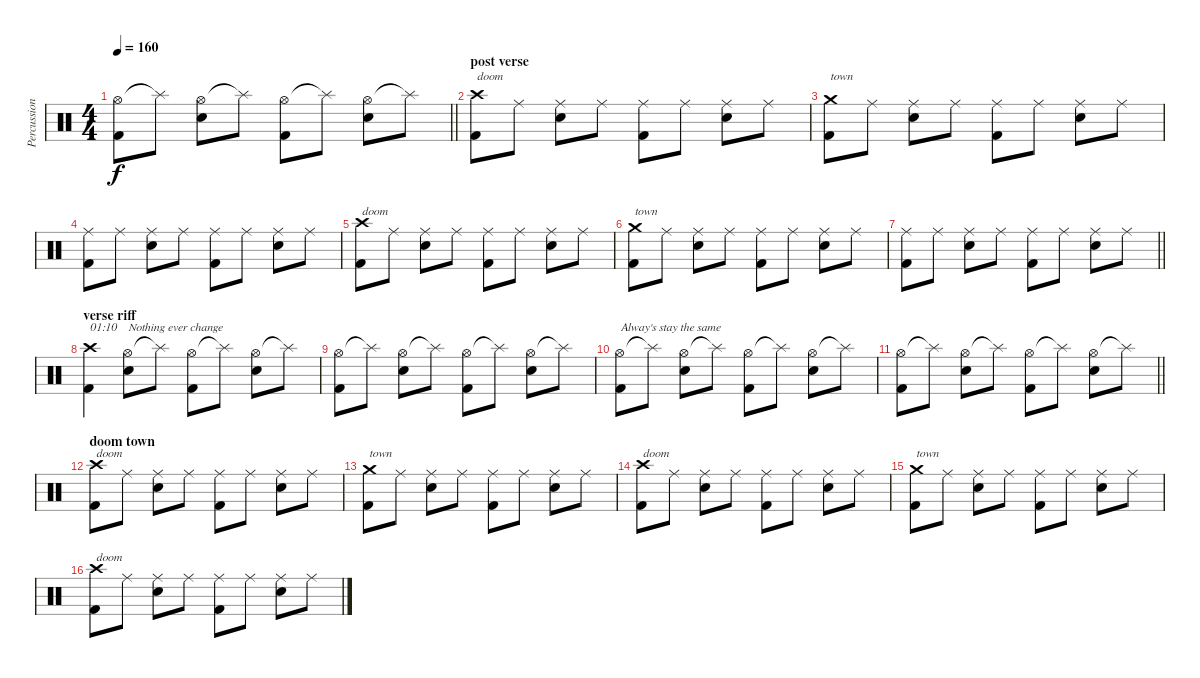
\track ("Percussion" "Percussion") {mute instrument percussion}
\staff {score}
\articulation defaults
\ts (4 4)
\tempo 160
\clef neutral
\barLineRight lightlight
\ks c
("Hi-Hat (open)" "Kick (hit) 2").8{dy f} "Splash (hit)"{t}.8 ("Hi-Hat (open)" "Snare (hit) 2").8 "Splash (hit)"{t}.8 ("Hi-Hat (open)" "Kick (hit) 2").8 "Splash (hit)"{t}.8 ("Hi-Hat (open)" "Snare (hit) 2").8 "Splash (hit)"{t}.8 |
\section ("" "post verse")
("Crash high (hit)" "Kick (hit) 2").8{txt "doom"} "Ride (middle)".8 ("Ride (middle)" "Snare (hit) 2").8 "Ride (middle)".8 ("Ride (middle)" "Kick (hit) 2").8 "Ride (middle)".8 ("Ride (middle)" "Snare (hit) 2").8 "Ride (middle)".8 |
("Crash medium (hit)" "Kick (hit) 2").8{txt "town"} "Ride (middle)".8 ("Ride (middle)" "Snare (hit) 2").8 "Ride (middle)".8 ("Ride (middle)" "Kick (hit) 2").8 "Ride (middle)".8 ("Ride (middle)" "Snare (hit) 2").8 "Ride (middle)".8 |
("Ride (middle)" "Kick (hit) 2").8 "Ride (middle)".8 ("Ride (middle)" "Snare (hit) 2").8 "Ride (middle)".8 ("Ride (middle)" "Kick (hit) 2").8 "Ride (middle)".8 ("Ride (middle)" "Snare (hit) 2").8 "Ride (middle)".8 |
("Crash high (hit)" "Kick (hit) 2").8{txt "doom"} "Ride (middle)".8 ("Ride (middle)" "Snare (hit) 2").8 "Ride (middle)".8 ("Ride (middle)" "Kick (hit) 2").8 "Ride (middle)".8 ("Ride (middle)" "Snare (hit) 2").8 "Ride (middle)".8 |
("Crash medium (hit)" "Kick (hit) 2").8{txt "town"} "Ride (middle)".8 ("Ride (middle)" "Snare (hit) 2").8 "Ride (middle)".8 ("Ride (middle)" "Kick (hit) 2").8 "Ride (middle)".8 ("Ride (middle)" "Snare (hit) 2").8 "Ride (middle)".8 |
\barLineRight lightlight
("Ride (middle)" "Kick (hit) 2").8 "Ride (middle)".8 ("Ride (middle)" "Snare (hit) 2").8 "Ride (middle)".8 ("Ride (middle)" "Kick (hit) 2").8 "Ride (middle)".8 ("Ride (middle)" "Snare (hit) 2").8 "Ride (middle)".8 |
\section ("" "verse riff")
("Crash high (hit)" "Kick (hit) 2").4{txt "01:10"} ("Hi-Hat (open)" "Snare (hit) 2").8{txt "Nothing ever change"} "Splash (hit)"{t}.8 ("Hi-Hat (open)" "Kick (hit) 2").8 "Splash (hit)"{t}.8 ("Hi-Hat (open)" "Snare (hit) 2").8 "Splash (hit)"{t}.8 |
("Hi-Hat (open)" "Kick (hit) 2").8 "Splash (hit)"{t}.8 ("Hi-Hat (open)" "Snare (hit) 2").8 "Splash (hit)"{t}.8 ("Hi-Hat (open)" "Kick (hit) 2").8 "Splash (hit)"{t}.8 ("Hi-Hat (open)" "Snare (hit) 2").8 "Splash (hit)"{t}.8 |
("Hi-Hat (open)" "Kick (hit) 2").8{txt "Alway's stay the same"} "Splash (hit)"{t}.8 ("Hi-Hat (open)" "Snare (hit) 2").8 "Splash (hit)"{t}.8 ("Hi-Hat (open)" "Kick (hit) 2").8 "Splash (hit)"{t}.8 ("Hi-Hat (open)" "Snare (hit) 2").8 "Splash (hit)"{t}.8 |
\barLineRight lightlight
("Hi-Hat (open)" "Kick (hit) 2").8 "Splash (hit)"{t}.8 ("Hi-Hat (open)" "Snare (hit) 2").8 "Splash (hit)"{t}.8 ("Hi-Hat (open)" "Kick (hit) 2").8 "Splash (hit)"{t}.8 ("Hi-Hat (open)" "Snare (hit) 2").8 "Splash (hit)"{t}.8 |
\section ("" "doom town")
("Crash high (hit)" "Kick (hit) 2").8{txt "doom"} "Ride (middle)".8 ("Ride (middle)" "Snare (hit) 2").8 "Ride (middle)".8 ("Ride (middle)" "Kick (hit) 2").8 "Ride (middle)".8 ("Ride (middle)" "Snare (hit) 2").8 "Ride (middle)".8 |
("Crash medium (hit)" "Kick (hit) 2").8{txt "town"} "Ride (middle)".8 ("Ride (middle)" "Snare (hit) 2").8 "Ride (middle)".8 ("Ride (middle)" "Kick (hit) 2").8 "Ride (middle)".8 ("Ride (middle)" "Snare (hit) 2").8 "Ride (middle)".8 |
("Crash high (hit)" "Kick (hit) 2").8{txt "doom"} "Ride (middle)".8 ("Ride (middle)" "Snare (hit) 2").8 "Ride (middle)".8 ("Ride (middle)" "Kick (hit) 2").8 "Ride (middle)".8 ("Ride (middle)" "Snare (hit) 2").8 "Ride (middle)".8 |
("Crash medium (hit)" "Kick (hit) 2").8{txt "town"} "Ride (middle)".8 ("Ride (middle)" "Snare (hit) 2").8 "Ride (middle)".8 ("Ride (middle)" "Kick (hit) 2").8 "Ride (middle)".8 ("Ride (middle)" "Snare (hit) 2").8 "Ride (middle)".8 |
("Crash high (hit)" "Kick (hit) 2").8{txt "doom"} "Ride (middle)".8 ("Ride (middle)" "Snare (hit) 2").8 "Ride (middle)".8 ("Ride (middle)" "Kick (hit) 2").8 "Ride (middle)".8 ("Ride (middle)" "Snare (hit) 2").8 "Ride (middle)".8
